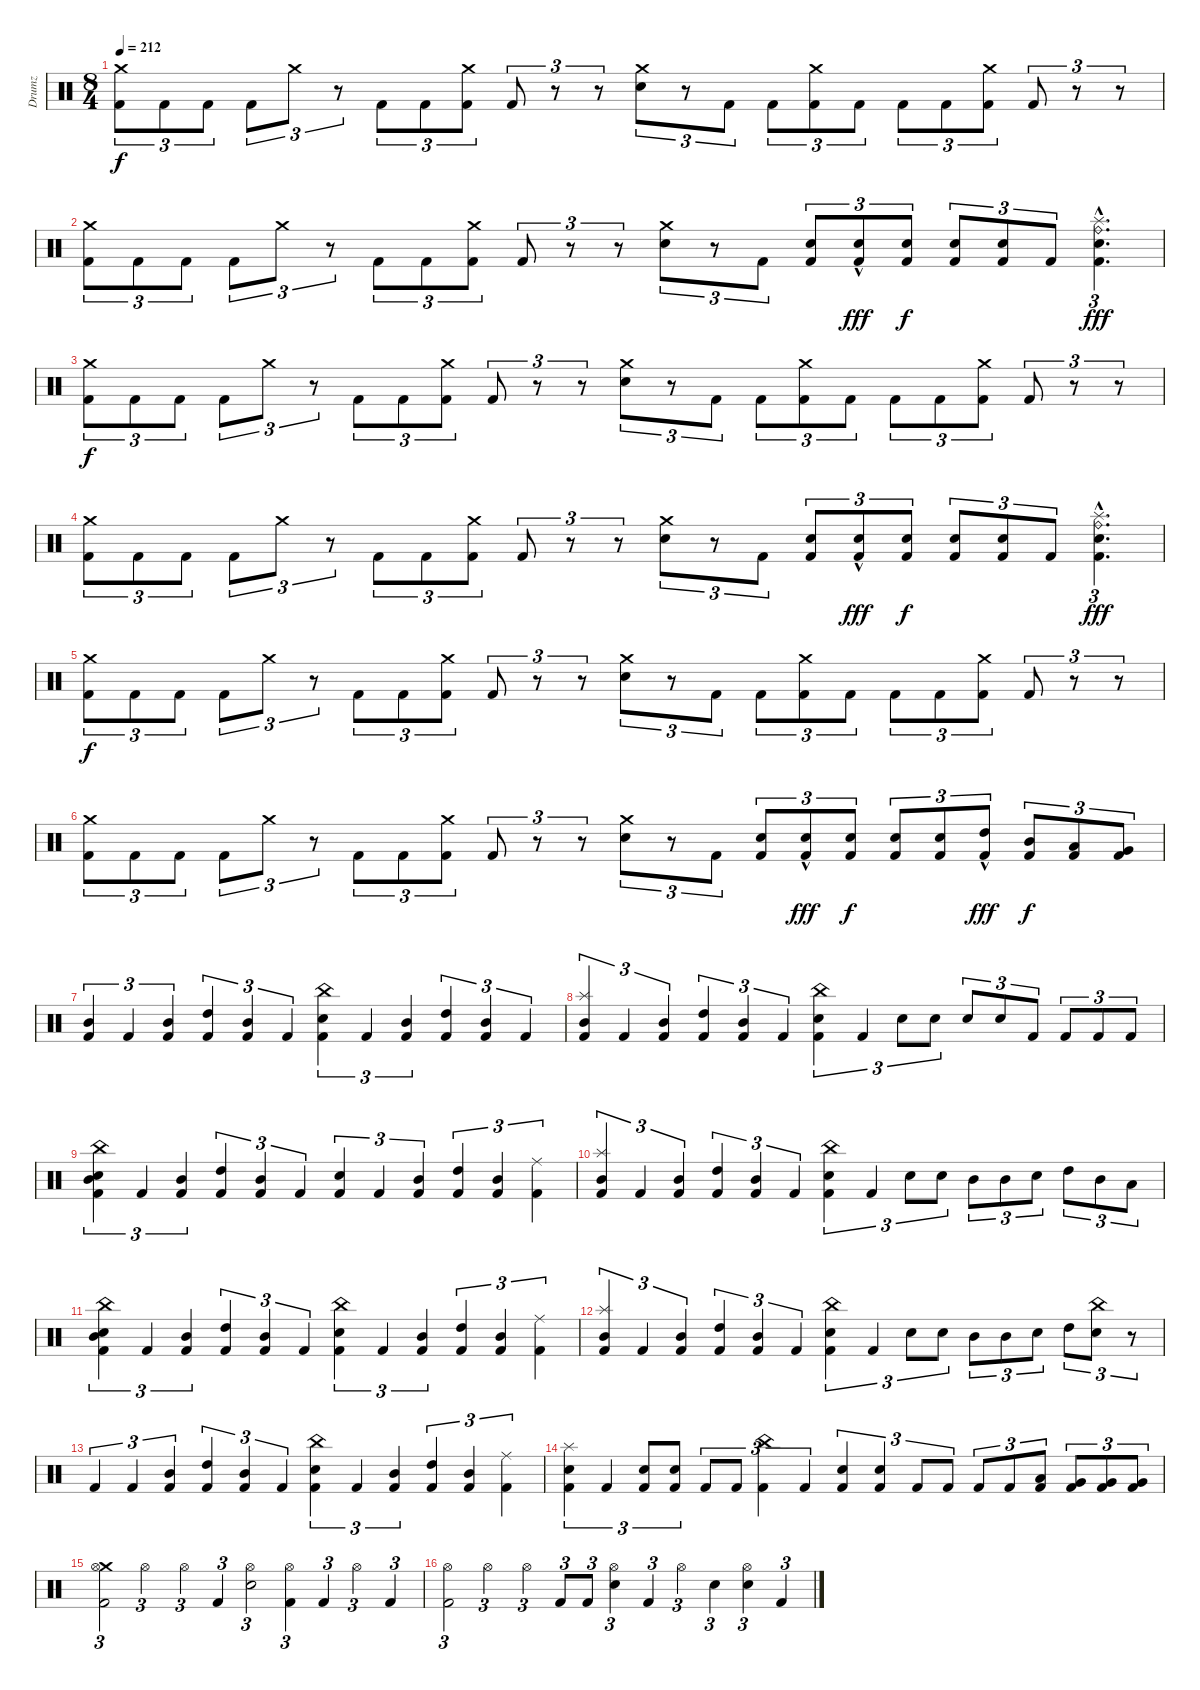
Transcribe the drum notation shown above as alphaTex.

\track ("Drumz" "Drumz") {instrument percussion}
\staff {score}
\articulation defaults
\ts (8 4)
\tempo 212
\clef neutral
\ks c
("Crash medium (hit)" "Kick (hit) 2").8{tu (3 2) dy f} "Kick (hit) 2".8{tu (3 2)} "Kick (hit) 2".8{tu (3 2)} "Kick (hit) 2".8{tu (3 2)} "Crash medium (hit)".8{tu (3 2)} r.8{tu (3 2)} "Kick (hit) 2".8{tu (3 2)} "Kick (hit) 2".8{tu (3 2)} ("Crash medium (hit)" "Kick (hit) 2").8{tu (3 2)} "Kick (hit) 2".8{tu (3 2)} r.8{tu (3 2)} r.8{tu (3 2)} ("Crash medium (hit)" "Electric Snare (hit)").8{tu (3 2)} r.8{tu (3 2)} "Kick (hit) 2".8{tu (3 2)} "Kick (hit) 2".8{tu (3 2)} ("Crash medium (hit)" "Kick (hit) 2").8{tu (3 2)} "Kick (hit) 2".8{tu (3 2)} "Kick (hit) 2".8{tu (3 2)} "Kick (hit) 2".8{tu (3 2)} ("Crash medium (hit)" "Kick (hit) 2").8{tu (3 2)} "Kick (hit) 2".8{tu (3 2)} r.8{tu (3 2)} r.8{tu (3 2)} |
("Crash medium (hit)" "Kick (hit) 2").8{tu (3 2)} "Kick (hit) 2".8{tu (3 2)} "Kick (hit) 2".8{tu (3 2)} "Kick (hit) 2".8{tu (3 2)} "Crash medium (hit)".8{tu (3 2)} r.8{tu (3 2)} "Kick (hit) 2".8{tu (3 2)} "Kick (hit) 2".8{tu (3 2)} ("Crash medium (hit)" "Kick (hit) 2").8{tu (3 2)} "Kick (hit) 2".8{tu (3 2)} r.8{tu (3 2)} r.8{tu (3 2)} ("Crash medium (hit)" "Electric Snare (hit)").8{tu (3 2)} r.8{tu (3 2)} "Kick (hit) 2".8{tu (3 2)} ("Electric Snare (hit)" "Kick (hit) 2").8{tu (3 2)} ("Electric Snare (hit)"{hac} "Kick (hit) 2").8{tu (3 2) dy fff} ("Electric Snare (hit)" "Kick (hit) 2").8{tu (3 2) dy f} ("Electric Snare (hit)" "Kick (hit) 2").8{tu (3 2)} ("Electric Snare (hit)" "Kick (hit) 2").8{tu (3 2)} "Kick (hit) 2".8{tu (3 2)} ("Splash (hit)" "Ride (bell)" "Electric Snare (hit)"{hac} "Kick (hit) 2").4{d tu (3 2) dy fff} |
("Crash medium (hit)" "Kick (hit) 2").8{tu (3 2) dy f} "Kick (hit) 2".8{tu (3 2)} "Kick (hit) 2".8{tu (3 2)} "Kick (hit) 2".8{tu (3 2)} "Crash medium (hit)".8{tu (3 2)} r.8{tu (3 2)} "Kick (hit) 2".8{tu (3 2)} "Kick (hit) 2".8{tu (3 2)} ("Crash medium (hit)" "Kick (hit) 2").8{tu (3 2)} "Kick (hit) 2".8{tu (3 2)} r.8{tu (3 2)} r.8{tu (3 2)} ("Crash medium (hit)" "Electric Snare (hit)").8{tu (3 2)} r.8{tu (3 2)} "Kick (hit) 2".8{tu (3 2)} "Kick (hit) 2".8{tu (3 2)} ("Crash medium (hit)" "Kick (hit) 2").8{tu (3 2)} "Kick (hit) 2".8{tu (3 2)} "Kick (hit) 2".8{tu (3 2)} "Kick (hit) 2".8{tu (3 2)} ("Crash medium (hit)" "Kick (hit) 2").8{tu (3 2)} "Kick (hit) 2".8{tu (3 2)} r.8{tu (3 2)} r.8{tu (3 2)} |
("Crash medium (hit)" "Kick (hit) 2").8{tu (3 2)} "Kick (hit) 2".8{tu (3 2)} "Kick (hit) 2".8{tu (3 2)} "Kick (hit) 2".8{tu (3 2)} "Crash medium (hit)".8{tu (3 2)} r.8{tu (3 2)} "Kick (hit) 2".8{tu (3 2)} "Kick (hit) 2".8{tu (3 2)} ("Crash medium (hit)" "Kick (hit) 2").8{tu (3 2)} "Kick (hit) 2".8{tu (3 2)} r.8{tu (3 2)} r.8{tu (3 2)} ("Crash medium (hit)" "Electric Snare (hit)").8{tu (3 2)} r.8{tu (3 2)} "Kick (hit) 2".8{tu (3 2)} ("Electric Snare (hit)" "Kick (hit) 2").8{tu (3 2)} ("Electric Snare (hit)"{hac} "Kick (hit) 2").8{tu (3 2) dy fff} ("Electric Snare (hit)" "Kick (hit) 2").8{tu (3 2) dy f} ("Electric Snare (hit)" "Kick (hit) 2").8{tu (3 2)} ("Electric Snare (hit)" "Kick (hit) 2").8{tu (3 2)} "Kick (hit) 2".8{tu (3 2)} ("Splash (hit)" "Ride (bell)" "Electric Snare (hit)"{hac} "Kick (hit) 2").4{d tu (3 2) dy fff} |
("Crash medium (hit)" "Kick (hit) 2").8{tu (3 2) dy f} "Kick (hit) 2".8{tu (3 2)} "Kick (hit) 2".8{tu (3 2)} "Kick (hit) 2".8{tu (3 2)} "Crash medium (hit)".8{tu (3 2)} r.8{tu (3 2)} "Kick (hit) 2".8{tu (3 2)} "Kick (hit) 2".8{tu (3 2)} ("Crash medium (hit)" "Kick (hit) 2").8{tu (3 2)} "Kick (hit) 2".8{tu (3 2)} r.8{tu (3 2)} r.8{tu (3 2)} ("Crash medium (hit)" "Electric Snare (hit)").8{tu (3 2)} r.8{tu (3 2)} "Kick (hit) 2".8{tu (3 2)} "Kick (hit) 2".8{tu (3 2)} ("Crash medium (hit)" "Kick (hit) 2").8{tu (3 2)} "Kick (hit) 2".8{tu (3 2)} "Kick (hit) 2".8{tu (3 2)} "Kick (hit) 2".8{tu (3 2)} ("Crash medium (hit)" "Kick (hit) 2").8{tu (3 2)} "Kick (hit) 2".8{tu (3 2)} r.8{tu (3 2)} r.8{tu (3 2)} |
("Crash medium (hit)" "Kick (hit) 2").8{tu (3 2)} "Kick (hit) 2".8{tu (3 2)} "Kick (hit) 2".8{tu (3 2)} "Kick (hit) 2".8{tu (3 2)} "Crash medium (hit)".8{tu (3 2)} r.8{tu (3 2)} "Kick (hit) 2".8{tu (3 2)} "Kick (hit) 2".8{tu (3 2)} ("Crash medium (hit)" "Kick (hit) 2").8{tu (3 2)} "Kick (hit) 2".8{tu (3 2)} r.8{tu (3 2)} r.8{tu (3 2)} ("Crash medium (hit)" "Electric Snare (hit)").8{tu (3 2)} r.8{tu (3 2)} "Kick (hit) 2".8{tu (3 2)} ("Electric Snare (hit)" "Kick (hit) 2").8{tu (3 2)} ("Electric Snare (hit)"{hac} "Kick (hit) 2").8{tu (3 2) dy fff} ("Electric Snare (hit)" "Kick (hit) 2").8{tu (3 2) dy f} ("Electric Snare (hit)" "Kick (hit) 2").8{tu (3 2)} ("Electric Snare (hit)" "Kick (hit) 2").8{tu (3 2)} ("High Tom (hit)"{hac} "Kick (hit) 2").8{tu (3 2) dy fff} ("Mid Tom (hit)" "Kick (hit) 2").8{tu (3 2) dy f} ("Low Tom (hit)" "Kick (hit) 2").8{tu (3 2)} ("Very Low Tom (hit)" "Kick (hit) 2").8{tu (3 2)} |
("Mid Tom (hit)" "Kick (hit) 2").4{tu (3 2) volume 10} "Kick (hit) 2".4{tu (3 2)} ("Mid Tom (hit)" "Kick (hit) 2").4{tu (3 2)} ("High Tom (hit)" "Kick (hit) 2").4{tu (3 2)} ("Mid Tom (hit)" "Kick (hit) 2").4{tu (3 2)} "Kick (hit) 2".4{tu (3 2)} ("China (hit)" "Electric Snare (hit)" "Kick (hit) 2").4{tu (3 2)} "Kick (hit) 2".4{tu (3 2)} ("Mid Tom (hit)" "Kick (hit) 2").4{tu (3 2)} ("High Tom (hit)" "Kick (hit) 2").4{tu (3 2)} ("Mid Tom (hit)" "Kick (hit) 2").4{tu (3 2)} "Kick (hit) 2".4{tu (3 2)} |
("Splash (hit)" "Mid Tom (hit)" "Kick (hit) 2").4{tu (3 2)} "Kick (hit) 2".4{tu (3 2)} ("Mid Tom (hit)" "Kick (hit) 2").4{tu (3 2)} ("High Tom (hit)" "Kick (hit) 2").4{tu (3 2)} ("Mid Tom (hit)" "Kick (hit) 2").4{tu (3 2)} "Kick (hit) 2".4{tu (3 2)} ("China (hit)" "Electric Snare (hit)" "Kick (hit) 2").4{tu (3 2)} "Kick (hit) 2".4{tu (3 2)} "Electric Snare (hit)".8{tu (3 2)} "Electric Snare (hit)".8{tu (3 2)} "Electric Snare (hit)".8{tu (3 2)} "Electric Snare (hit)".8{tu (3 2)} "Kick (hit) 2".8{tu (3 2)} "Kick (hit) 2".8{tu (3 2)} "Kick (hit) 2".8{tu (3 2)} "Kick (hit) 2".8{tu (3 2)} |
("China (hit)" "Mid Tom (hit)" "Electric Snare (hit)" "Kick (hit) 2").4{tu (3 2)} "Kick (hit) 2".4{tu (3 2)} ("Mid Tom (hit)" "Kick (hit) 2").4{tu (3 2)} ("High Tom (hit)" "Kick (hit) 2").4{tu (3 2)} ("Mid Tom (hit)" "Kick (hit) 2").4{tu (3 2)} "Kick (hit) 2".4{tu (3 2)} ("Electric Snare (hit)" "Kick (hit) 2").4{tu (3 2)} "Kick (hit) 2".4{tu (3 2)} ("Mid Tom (hit)" "Kick (hit) 2").4{tu (3 2)} ("High Tom (hit)" "Kick (hit) 2").4{tu (3 2)} ("Mid Tom (hit)" "Kick (hit) 2").4{tu (3 2)} ("Ride (middle)" "Kick (hit) 2").4{tu (3 2)} |
("Splash (hit)" "Mid Tom (hit)" "Kick (hit) 2").4{tu (3 2)} "Kick (hit) 2".4{tu (3 2)} ("Mid Tom (hit)" "Kick (hit) 2").4{tu (3 2)} ("High Tom (hit)" "Kick (hit) 2").4{tu (3 2)} ("Mid Tom (hit)" "Kick (hit) 2").4{tu (3 2)} "Kick (hit) 2".4{tu (3 2)} ("China (hit)" "Electric Snare (hit)" "Kick (hit) 2").4{tu (3 2)} "Kick (hit) 2".4{tu (3 2)} "Electric Snare (hit)".8{tu (3 2)} "Electric Snare (hit)".8{tu (3 2)} "Mid Tom (hit)".8{tu (3 2)} "Mid Tom (hit)".8{tu (3 2)} "Electric Snare (hit)".8{tu (3 2)} "High Tom (hit)".8{tu (3 2)} "Mid Tom (hit)".8{tu (3 2)} "Low Tom (hit)".8{tu (3 2)} |
("China (hit)" "Mid Tom (hit)" "Electric Snare (hit)" "Kick (hit) 2").4{tu (3 2)} "Kick (hit) 2".4{tu (3 2)} ("Mid Tom (hit)" "Kick (hit) 2").4{tu (3 2)} ("High Tom (hit)" "Kick (hit) 2").4{tu (3 2)} ("Mid Tom (hit)" "Kick (hit) 2").4{tu (3 2)} "Kick (hit) 2".4{tu (3 2)} ("China (hit)" "Electric Snare (hit)" "Kick (hit) 2").4{tu (3 2)} "Kick (hit) 2".4{tu (3 2)} ("Mid Tom (hit)" "Kick (hit) 2").4{tu (3 2)} ("High Tom (hit)" "Kick (hit) 2").4{tu (3 2)} ("Mid Tom (hit)" "Kick (hit) 2").4{tu (3 2)} ("Ride (middle)" "Kick (hit) 2").4{tu (3 2)} |
("Splash (hit)" "Mid Tom (hit)" "Kick (hit) 2").4{tu (3 2)} "Kick (hit) 2".4{tu (3 2)} ("Mid Tom (hit)" "Kick (hit) 2").4{tu (3 2)} ("High Tom (hit)" "Kick (hit) 2").4{tu (3 2)} ("Mid Tom (hit)" "Kick (hit) 2").4{tu (3 2)} "Kick (hit) 2".4{tu (3 2)} ("China (hit)" "Electric Snare (hit)" "Kick (hit) 2").4{tu (3 2)} "Kick (hit) 2".4{tu (3 2)} "Electric Snare (hit)".8{tu (3 2)} "Electric Snare (hit)".8{tu (3 2)} "Mid Tom (hit)".8{tu (3 2)} "Mid Tom (hit)".8{tu (3 2)} "Electric Snare (hit)".8{tu (3 2)} "High Tom (hit)".8{tu (3 2)} ("China (hit)" "Electric Snare (hit)").8{tu (3 2)} r.8{tu (3 2)} |
"Kick (hit) 2".4{tu (3 2)} "Kick (hit) 2".4{tu (3 2)} ("Mid Tom (hit)" "Kick (hit) 2").4{tu (3 2)} ("High Tom (hit)" "Kick (hit) 2").4{tu (3 2)} ("Mid Tom (hit)" "Kick (hit) 2").4{tu (3 2)} "Kick (hit) 2".4{tu (3 2)} ("China (hit)" "Electric Snare (hit)" "Kick (hit) 2").4{tu (3 2)} "Kick (hit) 2".4{tu (3 2)} ("Mid Tom (hit)" "Kick (hit) 2").4{tu (3 2)} ("High Tom (hit)" "Kick (hit) 2").4{tu (3 2)} ("Mid Tom (hit)" "Kick (hit) 2").4{tu (3 2)} ("Ride (middle)" "Kick (hit) 2").4{tu (3 2)} |
("Splash (hit)" "Electric Snare (hit)" "Kick (hit) 2").4{tu (3 2)} "Kick (hit) 2".4{tu (3 2)} ("Electric Snare (hit)" "Kick (hit) 2").8{tu (3 2)} ("Electric Snare (hit)" "Kick (hit) 2").8{tu (3 2)} "Kick (hit) 2".8{tu (3 2)} "Kick (hit) 2".8{tu (3 2)} ("China (hit)" "Kick (hit) 2").4{tu (3 2)} "Kick (hit) 2".4{tu (3 2)} ("Electric Snare (hit)" "Kick (hit) 2").4{tu (3 2)} ("Electric Snare (hit)" "Kick (hit) 2").4{tu (3 2)} "Kick (hit) 2".8{tu (3 2)} "Kick (hit) 2".8{tu (3 2)} "Kick (hit) 2".8{tu (3 2)} "Kick (hit) 2".8{tu (3 2)} ("Low Tom (hit)" "Kick (hit) 2").8{tu (3 2)} ("Very Low Tom (hit)" "Kick (hit) 2").8{tu (3 2)} ("Very Low Tom (hit)" "Kick (hit) 2").8{tu (3 2)} ("Very Low Tom (hit)" "Kick (hit) 2").8{tu (3 2)} |
("Crash medium (hit)" "Hi-Hat (open)" "Kick (hit) 2").2{tu (3 2)} "Hi-Hat (open)".2{tu (3 2)} "Hi-Hat (open)".4{tu (3 2)} "Kick (hit) 2".4{tu (3 2)} ("Hi-Hat (open)" "Electric Snare (hit)").2{tu (3 2)} ("Hi-Hat (open)" "Kick (hit) 2").4{tu (3 2)} "Kick (hit) 2".4{tu (3 2)} "Hi-Hat (open)".4{tu (3 2)} "Kick (hit) 2".4{tu (3 2)} |
("Hi-Hat (open)" "Kick (hit) 2").2{tu (3 2)} "Hi-Hat (open)".2{tu (3 2)} "Hi-Hat (open)".4{tu (3 2)} "Kick (hit) 2".8{tu (3 2)} "Kick (hit) 2".8{tu (3 2)} ("Hi-Hat (open)" "Electric Snare (hit)").4{tu (3 2)} "Kick (hit) 2".4{tu (3 2)} "Hi-Hat (open)".4{tu (3 2)} "Electric Snare (hit)".4{tu (3 2)} ("Hi-Hat (open)" "Electric Snare (hit)").4{tu (3 2)} "Kick (hit) 2".4{tu (3 2)}
